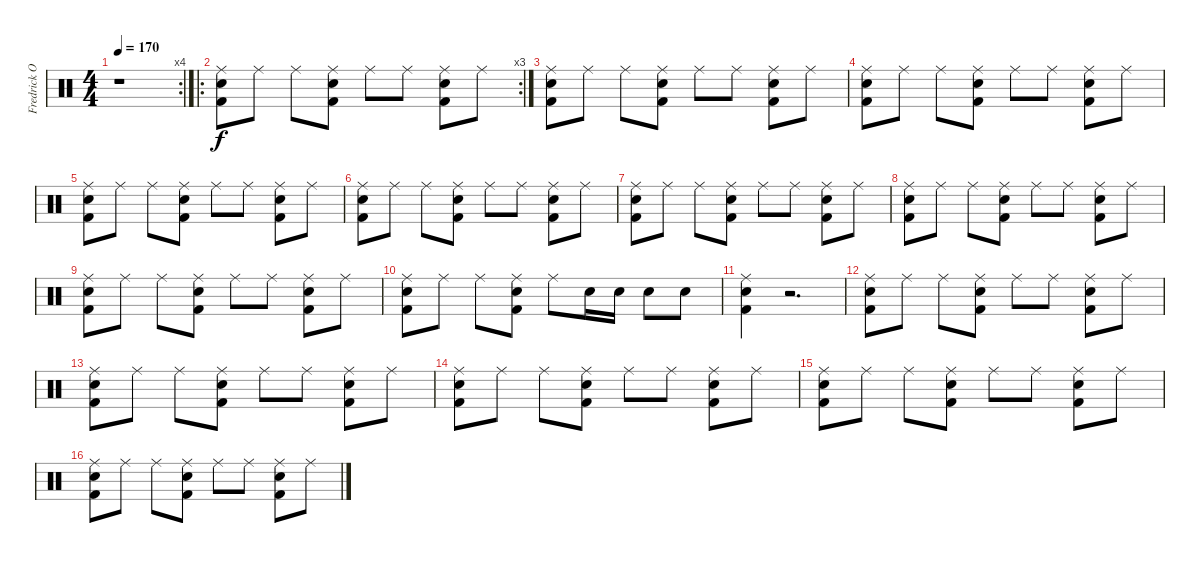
\track ("Fredrick Oscarsson (Drums)" "Fredrick O") {instrument percussion}
\staff {score}
\articulation defaults
\rc 4
\ts (4 4)
\tempo 170
\clef neutral
\ks c
r.1{dy f} |
\ro
\rc 3
("Ride (middle)" "Snare (hit) 2" "Kick (hit) 2").8 "Ride (middle)".8 "Ride (middle)".8 ("Ride (middle)" "Snare (hit) 2" "Kick (hit) 2").8 "Ride (middle)".8 "Ride (middle)".8 ("Ride (middle)" "Snare (hit) 2" "Kick (hit) 2").8 "Ride (middle)".8 |
("Ride (middle)" "Snare (hit) 2" "Kick (hit) 2").8 "Ride (middle)".8 "Ride (middle)".8 ("Ride (middle)" "Snare (hit) 2" "Kick (hit) 2").8 "Ride (middle)".8 "Ride (middle)".8 ("Ride (middle)" "Snare (hit) 2" "Kick (hit) 2").8 "Ride (middle)".8 |
("Ride (middle)" "Snare (hit) 2" "Kick (hit) 2").8 "Ride (middle)".8 "Ride (middle)".8 ("Ride (middle)" "Snare (hit) 2" "Kick (hit) 2").8 "Ride (middle)".8 "Ride (middle)".8 ("Ride (middle)" "Snare (hit) 2" "Kick (hit) 2").8 "Ride (middle)".8 |
("Ride (middle)" "Snare (hit) 2" "Kick (hit) 2").8 "Ride (middle)".8 "Ride (middle)".8 ("Ride (middle)" "Snare (hit) 2" "Kick (hit) 2").8 "Ride (middle)".8 "Ride (middle)".8 ("Ride (middle)" "Snare (hit) 2" "Kick (hit) 2").8 "Ride (middle)".8 |
("Ride (middle)" "Snare (hit) 2" "Kick (hit) 2").8 "Ride (middle)".8 "Ride (middle)".8 ("Ride (middle)" "Snare (hit) 2" "Kick (hit) 2").8 "Ride (middle)".8 "Ride (middle)".8 ("Ride (middle)" "Snare (hit) 2" "Kick (hit) 2").8 "Ride (middle)".8 |
("Ride (middle)" "Snare (hit) 2" "Kick (hit) 2").8 "Ride (middle)".8 "Ride (middle)".8 ("Ride (middle)" "Snare (hit) 2" "Kick (hit) 2").8 "Ride (middle)".8 "Ride (middle)".8 ("Ride (middle)" "Snare (hit) 2" "Kick (hit) 2").8 "Ride (middle)".8 |
("Ride (middle)" "Snare (hit) 2" "Kick (hit) 2").8 "Ride (middle)".8 "Ride (middle)".8 ("Ride (middle)" "Snare (hit) 2" "Kick (hit) 2").8 "Ride (middle)".8 "Ride (middle)".8 ("Ride (middle)" "Snare (hit) 2" "Kick (hit) 2").8 "Ride (middle)".8 |
("Ride (middle)" "Snare (hit) 2" "Kick (hit) 2").8 "Ride (middle)".8 "Ride (middle)".8 ("Ride (middle)" "Snare (hit) 2" "Kick (hit) 2").8 "Ride (middle)".8 "Ride (middle)".8 ("Ride (middle)" "Snare (hit) 2" "Kick (hit) 2").8 "Ride (middle)".8 |
("Ride (middle)" "Snare (hit) 2" "Kick (hit) 2").8 "Ride (middle)".8 "Ride (middle)".8 ("Ride (middle)" "Snare (hit) 2" "Kick (hit) 2").8 "Ride (middle)".8 "Snare (hit) 2".16 "Snare (hit) 2".16 "Snare (hit) 2".8 "Snare (hit) 2".8 |
("Ride (middle)" "Snare (hit) 2" "Kick (hit) 2").4 r.2{d} |
("Ride (middle)" "Snare (hit) 2" "Kick (hit) 2").8 "Ride (middle)".8 "Ride (middle)".8 ("Ride (middle)" "Snare (hit) 2" "Kick (hit) 2").8 "Ride (middle)".8 "Ride (middle)".8 ("Ride (middle)" "Snare (hit) 2" "Kick (hit) 2").8 "Ride (middle)".8 |
("Ride (middle)" "Snare (hit) 2" "Kick (hit) 2").8 "Ride (middle)".8 "Ride (middle)".8 ("Ride (middle)" "Snare (hit) 2" "Kick (hit) 2").8 "Ride (middle)".8 "Ride (middle)".8 ("Ride (middle)" "Snare (hit) 2" "Kick (hit) 2").8 "Ride (middle)".8 |
("Ride (middle)" "Snare (hit) 2" "Kick (hit) 2").8 "Ride (middle)".8 "Ride (middle)".8 ("Ride (middle)" "Snare (hit) 2" "Kick (hit) 2").8 "Ride (middle)".8 "Ride (middle)".8 ("Ride (middle)" "Snare (hit) 2" "Kick (hit) 2").8 "Ride (middle)".8 |
("Ride (middle)" "Snare (hit) 2" "Kick (hit) 2").8 "Ride (middle)".8 "Ride (middle)".8 ("Ride (middle)" "Snare (hit) 2" "Kick (hit) 2").8 "Ride (middle)".8 "Ride (middle)".8 ("Ride (middle)" "Snare (hit) 2" "Kick (hit) 2").8 "Ride (middle)".8 |
("Ride (middle)" "Snare (hit) 2" "Kick (hit) 2").8 "Ride (middle)".8 "Ride (middle)".8 ("Ride (middle)" "Snare (hit) 2" "Kick (hit) 2").8 "Ride (middle)".8 "Ride (middle)".8 ("Ride (middle)" "Snare (hit) 2" "Kick (hit) 2").8 "Ride (middle)".8
